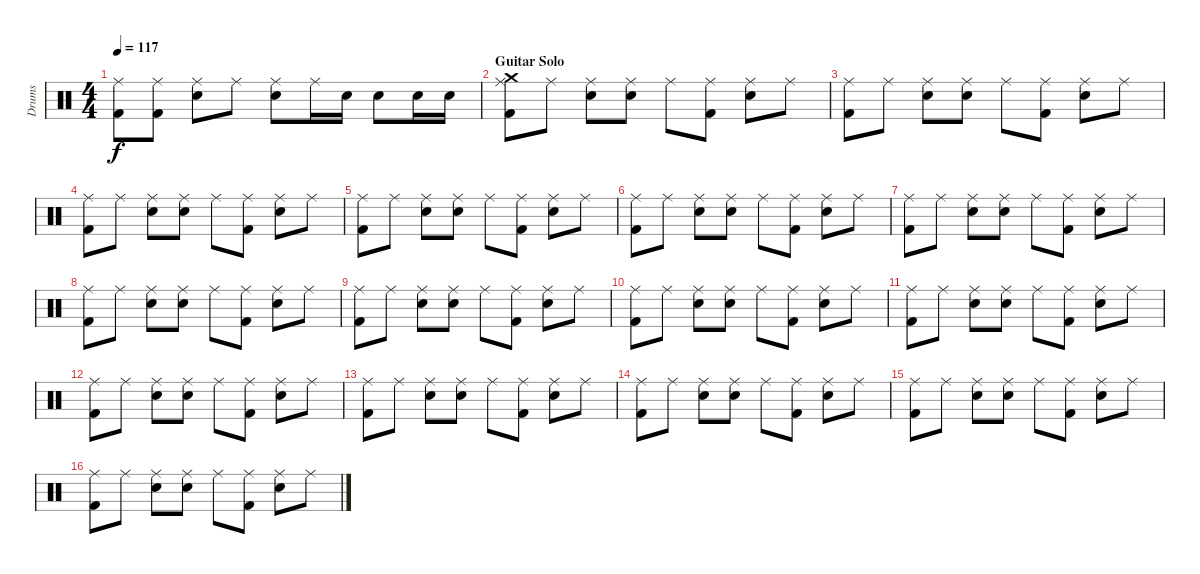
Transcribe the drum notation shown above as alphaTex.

\track ("Drums" "Drums") {instrument percussion}
\staff {score}
\articulation defaults
\ts (4 4)
\tempo 117
\clef neutral
\ks c
("Ride (middle)" "Kick (hit) 2").8{dy f} ("Ride (middle)" "Kick (hit) 2").8 ("Ride (middle)" "Electric Snare (hit)").8 "Ride (middle)".8 ("Ride (middle)" "Electric Snare (hit)").8 "Ride (middle)".16 "Electric Snare (hit)".16 "Electric Snare (hit)".8 "Electric Snare (hit)".16 "Electric Snare (hit)".16 |
\section ("" "Guitar Solo")
("Ride (middle)" "Crash medium (hit)" "Kick (hit) 2").8 "Ride (middle)".8 ("Ride (middle)" "Electric Snare (hit)").8 ("Ride (middle)" "Electric Snare (hit)").8 "Ride (middle)".8 ("Ride (middle)" "Kick (hit) 2").8 ("Ride (middle)" "Electric Snare (hit)").8 "Ride (middle)".8 |
("Ride (middle)" "Kick (hit) 2").8 "Ride (middle)".8 ("Ride (middle)" "Electric Snare (hit)").8 ("Ride (middle)" "Electric Snare (hit)").8 "Ride (middle)".8 ("Ride (middle)" "Kick (hit) 2").8 ("Ride (middle)" "Electric Snare (hit)").8 "Ride (middle)".8 |
("Ride (middle)" "Kick (hit) 2").8 "Ride (middle)".8 ("Ride (middle)" "Electric Snare (hit)").8 ("Ride (middle)" "Electric Snare (hit)").8 "Ride (middle)".8 ("Ride (middle)" "Kick (hit) 2").8 ("Ride (middle)" "Electric Snare (hit)").8 "Ride (middle)".8 |
("Ride (middle)" "Kick (hit) 2").8 "Ride (middle)".8 ("Ride (middle)" "Electric Snare (hit)").8 ("Ride (middle)" "Electric Snare (hit)").8 "Ride (middle)".8 ("Ride (middle)" "Kick (hit) 2").8 ("Ride (middle)" "Electric Snare (hit)").8 "Ride (middle)".8 |
("Ride (middle)" "Kick (hit) 2").8 "Ride (middle)".8 ("Ride (middle)" "Electric Snare (hit)").8 ("Ride (middle)" "Electric Snare (hit)").8 "Ride (middle)".8 ("Ride (middle)" "Kick (hit) 2").8 ("Ride (middle)" "Electric Snare (hit)").8 "Ride (middle)".8 |
("Ride (middle)" "Kick (hit) 2").8 "Ride (middle)".8 ("Ride (middle)" "Electric Snare (hit)").8 ("Ride (middle)" "Electric Snare (hit)").8 "Ride (middle)".8 ("Ride (middle)" "Kick (hit) 2").8 ("Ride (middle)" "Electric Snare (hit)").8 "Ride (middle)".8 |
("Ride (middle)" "Kick (hit) 2").8 "Ride (middle)".8 ("Ride (middle)" "Electric Snare (hit)").8 ("Ride (middle)" "Electric Snare (hit)").8 "Ride (middle)".8 ("Ride (middle)" "Kick (hit) 2").8 ("Ride (middle)" "Electric Snare (hit)").8 "Ride (middle)".8 |
("Ride (middle)" "Kick (hit) 2").8 "Ride (middle)".8 ("Ride (middle)" "Electric Snare (hit)").8 ("Ride (middle)" "Electric Snare (hit)").8 "Ride (middle)".8 ("Ride (middle)" "Kick (hit) 2").8 ("Ride (middle)" "Electric Snare (hit)").8 "Ride (middle)".8 |
("Ride (middle)" "Kick (hit) 2").8 "Ride (middle)".8 ("Ride (middle)" "Electric Snare (hit)").8 ("Ride (middle)" "Electric Snare (hit)").8 "Ride (middle)".8 ("Ride (middle)" "Kick (hit) 2").8 ("Ride (middle)" "Electric Snare (hit)").8 "Ride (middle)".8 |
("Ride (middle)" "Kick (hit) 2").8 "Ride (middle)".8 ("Ride (middle)" "Electric Snare (hit)").8 ("Ride (middle)" "Electric Snare (hit)").8 "Ride (middle)".8 ("Ride (middle)" "Kick (hit) 2").8 ("Ride (middle)" "Electric Snare (hit)").8 "Ride (middle)".8 |
("Ride (middle)" "Kick (hit) 2").8 "Ride (middle)".8 ("Ride (middle)" "Electric Snare (hit)").8 ("Ride (middle)" "Electric Snare (hit)").8 "Ride (middle)".8 ("Ride (middle)" "Kick (hit) 2").8 ("Ride (middle)" "Electric Snare (hit)").8 "Ride (middle)".8 |
("Ride (middle)" "Kick (hit) 2").8 "Ride (middle)".8 ("Ride (middle)" "Electric Snare (hit)").8 ("Ride (middle)" "Electric Snare (hit)").8 "Ride (middle)".8 ("Ride (middle)" "Kick (hit) 2").8 ("Ride (middle)" "Electric Snare (hit)").8 "Ride (middle)".8 |
("Ride (middle)" "Kick (hit) 2").8 "Ride (middle)".8 ("Ride (middle)" "Electric Snare (hit)").8 ("Ride (middle)" "Electric Snare (hit)").8 "Ride (middle)".8 ("Ride (middle)" "Kick (hit) 2").8 ("Ride (middle)" "Electric Snare (hit)").8 "Ride (middle)".8 |
("Ride (middle)" "Kick (hit) 2").8 "Ride (middle)".8 ("Ride (middle)" "Electric Snare (hit)").8 ("Ride (middle)" "Electric Snare (hit)").8 "Ride (middle)".8 ("Ride (middle)" "Kick (hit) 2").8 ("Ride (middle)" "Electric Snare (hit)").8 "Ride (middle)".8 |
("Ride (middle)" "Kick (hit) 2").8 "Ride (middle)".8 ("Ride (middle)" "Electric Snare (hit)").8 ("Ride (middle)" "Electric Snare (hit)").8 "Ride (middle)".8 ("Ride (middle)" "Kick (hit) 2").8 ("Ride (middle)" "Electric Snare (hit)").8 "Ride (middle)".8
